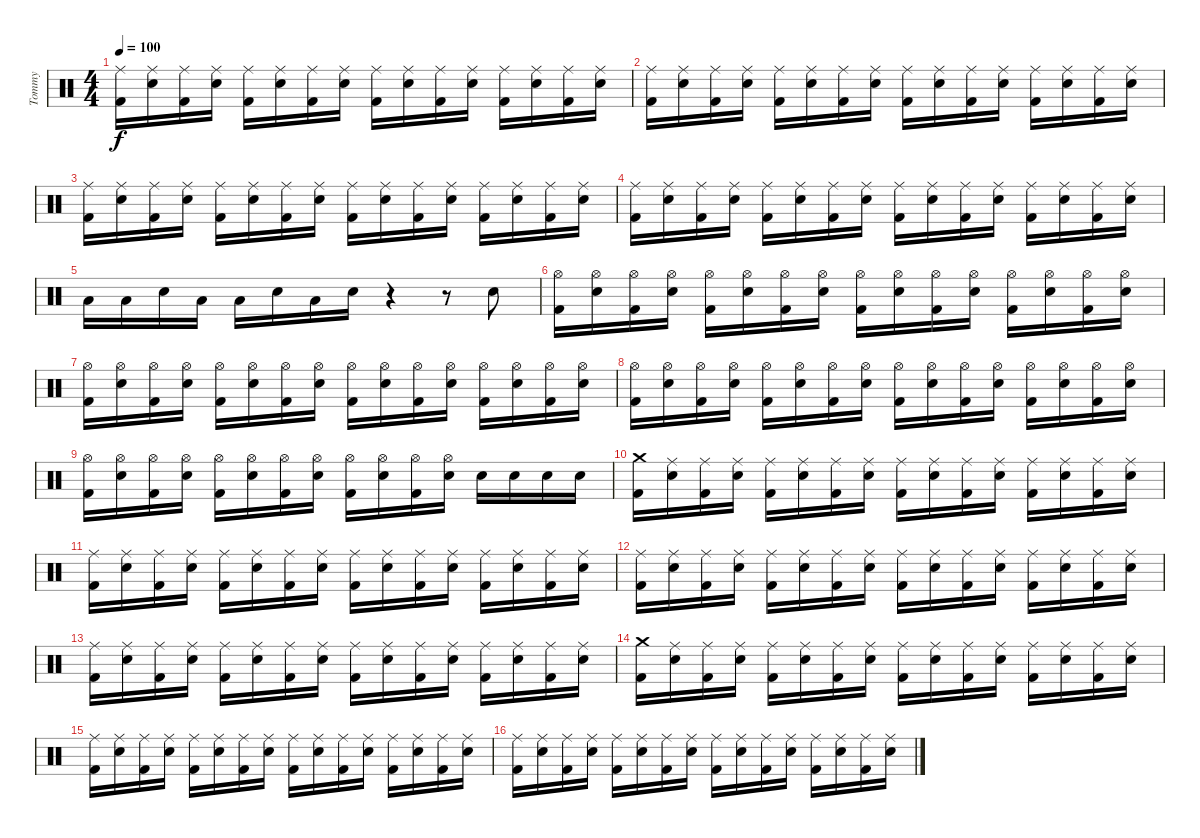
\track ("Tommy" "Tommy") {instrument percussion}
\staff {score}
\articulation defaults
\ts (4 4)
\tempo 100
\clef neutral
\ks c
("Ride (middle)" "Kick (hit) 2").16{dy f} ("Ride (middle)" "Snare (hit) 2").16 ("Ride (middle)" "Kick (hit) 2").16 ("Ride (middle)" "Snare (hit) 2").16 ("Ride (middle)" "Kick (hit) 2").16 ("Ride (middle)" "Snare (hit) 2").16 ("Ride (middle)" "Kick (hit) 2").16 ("Ride (middle)" "Snare (hit) 2").16 ("Ride (middle)" "Kick (hit) 2").16 ("Ride (middle)" "Snare (hit) 2").16 ("Ride (middle)" "Kick (hit) 2").16 ("Ride (middle)" "Snare (hit) 2").16 ("Ride (middle)" "Kick (hit) 2").16 ("Ride (middle)" "Snare (hit) 2").16 ("Ride (middle)" "Kick (hit) 2").16 ("Ride (middle)" "Snare (hit) 2").16 |
("Ride (middle)" "Kick (hit) 2").16 ("Ride (middle)" "Snare (hit) 2").16 ("Ride (middle)" "Kick (hit) 2").16 ("Ride (middle)" "Snare (hit) 2").16 ("Ride (middle)" "Kick (hit) 2").16 ("Ride (middle)" "Snare (hit) 2").16 ("Ride (middle)" "Kick (hit) 2").16 ("Ride (middle)" "Snare (hit) 2").16 ("Ride (middle)" "Kick (hit) 2").16 ("Ride (middle)" "Snare (hit) 2").16 ("Ride (middle)" "Kick (hit) 2").16 ("Ride (middle)" "Snare (hit) 2").16 ("Ride (middle)" "Kick (hit) 2").16 ("Ride (middle)" "Snare (hit) 2").16 ("Ride (middle)" "Kick (hit) 2").16 ("Ride (middle)" "Snare (hit) 2").16 |
("Ride (middle)" "Kick (hit) 2").16 ("Ride (middle)" "Snare (hit) 2").16 ("Ride (middle)" "Kick (hit) 2").16 ("Ride (middle)" "Snare (hit) 2").16 ("Ride (middle)" "Kick (hit) 2").16 ("Ride (middle)" "Snare (hit) 2").16 ("Ride (middle)" "Kick (hit) 2").16 ("Ride (middle)" "Snare (hit) 2").16 ("Ride (middle)" "Kick (hit) 2").16 ("Ride (middle)" "Snare (hit) 2").16 ("Ride (middle)" "Kick (hit) 2").16 ("Ride (middle)" "Snare (hit) 2").16 ("Ride (middle)" "Kick (hit) 2").16 ("Ride (middle)" "Snare (hit) 2").16 ("Ride (middle)" "Kick (hit) 2").16 ("Ride (middle)" "Snare (hit) 2").16 |
("Ride (middle)" "Kick (hit) 2").16 ("Ride (middle)" "Snare (hit) 2").16 ("Ride (middle)" "Kick (hit) 2").16 ("Ride (middle)" "Snare (hit) 2").16 ("Ride (middle)" "Kick (hit) 2").16 ("Ride (middle)" "Snare (hit) 2").16 ("Ride (middle)" "Kick (hit) 2").16 ("Ride (middle)" "Snare (hit) 2").16 ("Ride (middle)" "Kick (hit) 2").16 ("Ride (middle)" "Snare (hit) 2").16 ("Ride (middle)" "Kick (hit) 2").16 ("Ride (middle)" "Snare (hit) 2").16 ("Ride (middle)" "Kick (hit) 2").16 ("Ride (middle)" "Snare (hit) 2").16 ("Ride (middle)" "Kick (hit) 2").16 ("Ride (middle)" "Snare (hit) 2").16 |
"Low Tom (hit)".16 "Low Tom (hit)".16 "Snare (hit) 2".16 "Low Tom (hit)".16 "Low Tom (hit)".16 "Snare (hit) 2".16 "Low Tom (hit)".16 "Snare (hit) 2".16 r.4 r.8 "Snare (hit) 2".8 |
("Hi-Hat (open)" "Kick (hit) 2").16 ("Hi-Hat (open)" "Snare (hit) 2").16 ("Hi-Hat (open)" "Kick (hit) 2").16 ("Hi-Hat (open)" "Snare (hit) 2").16 ("Hi-Hat (open)" "Kick (hit) 2").16 ("Hi-Hat (open)" "Snare (hit) 2").16 ("Hi-Hat (open)" "Kick (hit) 2").16 ("Hi-Hat (open)" "Snare (hit) 2").16 ("Hi-Hat (open)" "Kick (hit) 2").16 ("Hi-Hat (open)" "Snare (hit) 2").16 ("Hi-Hat (open)" "Kick (hit) 2").16 ("Hi-Hat (open)" "Snare (hit) 2").16 ("Hi-Hat (open)" "Kick (hit) 2").16 ("Hi-Hat (open)" "Snare (hit) 2").16 ("Hi-Hat (open)" "Kick (hit) 2").16 ("Hi-Hat (open)" "Snare (hit) 2").16 |
("Hi-Hat (open)" "Kick (hit) 2").16 ("Hi-Hat (open)" "Snare (hit) 2").16 ("Hi-Hat (open)" "Kick (hit) 2").16 ("Hi-Hat (open)" "Snare (hit) 2").16 ("Hi-Hat (open)" "Kick (hit) 2").16 ("Hi-Hat (open)" "Snare (hit) 2").16 ("Hi-Hat (open)" "Kick (hit) 2").16 ("Hi-Hat (open)" "Snare (hit) 2").16 ("Hi-Hat (open)" "Kick (hit) 2").16 ("Hi-Hat (open)" "Snare (hit) 2").16 ("Hi-Hat (open)" "Kick (hit) 2").16 ("Hi-Hat (open)" "Snare (hit) 2").16 ("Hi-Hat (open)" "Kick (hit) 2").16 ("Hi-Hat (open)" "Snare (hit) 2").16 ("Hi-Hat (open)" "Kick (hit) 2").16 ("Hi-Hat (open)" "Snare (hit) 2").16 |
("Hi-Hat (open)" "Kick (hit) 2").16 ("Hi-Hat (open)" "Snare (hit) 2").16 ("Hi-Hat (open)" "Kick (hit) 2").16 ("Hi-Hat (open)" "Snare (hit) 2").16 ("Hi-Hat (open)" "Kick (hit) 2").16 ("Hi-Hat (open)" "Snare (hit) 2").16 ("Hi-Hat (open)" "Kick (hit) 2").16 ("Hi-Hat (open)" "Snare (hit) 2").16 ("Hi-Hat (open)" "Kick (hit) 2").16 ("Hi-Hat (open)" "Snare (hit) 2").16 ("Hi-Hat (open)" "Kick (hit) 2").16 ("Hi-Hat (open)" "Snare (hit) 2").16 ("Hi-Hat (open)" "Kick (hit) 2").16 ("Hi-Hat (open)" "Snare (hit) 2").16 ("Hi-Hat (open)" "Kick (hit) 2").16 ("Hi-Hat (open)" "Snare (hit) 2").16 |
("Hi-Hat (open)" "Kick (hit) 2").16 ("Hi-Hat (open)" "Snare (hit) 2").16 ("Hi-Hat (open)" "Kick (hit) 2").16 ("Hi-Hat (open)" "Snare (hit) 2").16 ("Hi-Hat (open)" "Kick (hit) 2").16 ("Hi-Hat (open)" "Snare (hit) 2").16 ("Hi-Hat (open)" "Kick (hit) 2").16 ("Hi-Hat (open)" "Snare (hit) 2").16 ("Hi-Hat (open)" "Kick (hit) 2").16 ("Hi-Hat (open)" "Snare (hit) 2").16 ("Hi-Hat (open)" "Kick (hit) 2").16 ("Hi-Hat (open)" "Snare (hit) 2").16 "Snare (hit) 2".16 "Snare (hit) 2".16 "Snare (hit) 2".16 "Snare (hit) 2".16 |
("Crash medium (hit)" "Kick (hit) 2").16 ("Ride (middle)" "Snare (hit) 2").16 ("Ride (middle)" "Kick (hit) 2").16 ("Ride (middle)" "Snare (hit) 2").16 ("Ride (middle)" "Kick (hit) 2").16 ("Ride (middle)" "Snare (hit) 2").16 ("Ride (middle)" "Kick (hit) 2").16 ("Ride (middle)" "Snare (hit) 2").16 ("Ride (middle)" "Kick (hit) 2").16 ("Ride (middle)" "Snare (hit) 2").16 ("Ride (middle)" "Kick (hit) 2").16 ("Ride (middle)" "Snare (hit) 2").16 ("Ride (middle)" "Kick (hit) 2").16 ("Ride (middle)" "Snare (hit) 2").16 ("Ride (middle)" "Kick (hit) 2").16 ("Ride (middle)" "Snare (hit) 2").16 |
("Ride (middle)" "Kick (hit) 2").16 ("Ride (middle)" "Snare (hit) 2").16 ("Ride (middle)" "Kick (hit) 2").16 ("Ride (middle)" "Snare (hit) 2").16 ("Ride (middle)" "Kick (hit) 2").16 ("Ride (middle)" "Snare (hit) 2").16 ("Ride (middle)" "Kick (hit) 2").16 ("Ride (middle)" "Snare (hit) 2").16 ("Ride (middle)" "Kick (hit) 2").16 ("Ride (middle)" "Snare (hit) 2").16 ("Ride (middle)" "Kick (hit) 2").16 ("Ride (middle)" "Snare (hit) 2").16 ("Ride (middle)" "Kick (hit) 2").16 ("Ride (middle)" "Snare (hit) 2").16 ("Ride (middle)" "Kick (hit) 2").16 ("Ride (middle)" "Snare (hit) 2").16 |
("Ride (middle)" "Kick (hit) 2").16 ("Ride (middle)" "Snare (hit) 2").16 ("Ride (middle)" "Kick (hit) 2").16 ("Ride (middle)" "Snare (hit) 2").16 ("Ride (middle)" "Kick (hit) 2").16 ("Ride (middle)" "Snare (hit) 2").16 ("Ride (middle)" "Kick (hit) 2").16 ("Ride (middle)" "Snare (hit) 2").16 ("Ride (middle)" "Kick (hit) 2").16 ("Ride (middle)" "Snare (hit) 2").16 ("Ride (middle)" "Kick (hit) 2").16 ("Ride (middle)" "Snare (hit) 2").16 ("Ride (middle)" "Kick (hit) 2").16 ("Ride (middle)" "Snare (hit) 2").16 ("Ride (middle)" "Kick (hit) 2").16 ("Ride (middle)" "Snare (hit) 2").16 |
("Ride (middle)" "Kick (hit) 2").16 ("Ride (middle)" "Snare (hit) 2").16 ("Ride (middle)" "Kick (hit) 2").16 ("Ride (middle)" "Snare (hit) 2").16 ("Ride (middle)" "Kick (hit) 2").16 ("Ride (middle)" "Snare (hit) 2").16 ("Ride (middle)" "Kick (hit) 2").16 ("Ride (middle)" "Snare (hit) 2").16 ("Ride (middle)" "Kick (hit) 2").16 ("Ride (middle)" "Snare (hit) 2").16 ("Ride (middle)" "Kick (hit) 2").16 ("Ride (middle)" "Snare (hit) 2").16 ("Ride (middle)" "Kick (hit) 2").16 ("Ride (middle)" "Snare (hit) 2").16 ("Ride (middle)" "Kick (hit) 2").16 ("Ride (middle)" "Snare (hit) 2").16 |
("Crash medium (hit)" "Kick (hit) 2").16 ("Ride (middle)" "Snare (hit) 2").16 ("Ride (middle)" "Kick (hit) 2").16 ("Ride (middle)" "Snare (hit) 2").16 ("Ride (middle)" "Kick (hit) 2").16 ("Ride (middle)" "Snare (hit) 2").16 ("Ride (middle)" "Kick (hit) 2").16 ("Ride (middle)" "Snare (hit) 2").16 ("Ride (middle)" "Kick (hit) 2").16 ("Ride (middle)" "Snare (hit) 2").16 ("Ride (middle)" "Kick (hit) 2").16 ("Ride (middle)" "Snare (hit) 2").16 ("Ride (middle)" "Kick (hit) 2").16 ("Ride (middle)" "Snare (hit) 2").16 ("Ride (middle)" "Kick (hit) 2").16 ("Ride (middle)" "Snare (hit) 2").16 |
("Ride (middle)" "Kick (hit) 2").16 ("Ride (middle)" "Snare (hit) 2").16 ("Ride (middle)" "Kick (hit) 2").16 ("Ride (middle)" "Snare (hit) 2").16 ("Ride (middle)" "Kick (hit) 2").16 ("Ride (middle)" "Snare (hit) 2").16 ("Ride (middle)" "Kick (hit) 2").16 ("Ride (middle)" "Snare (hit) 2").16 ("Ride (middle)" "Kick (hit) 2").16 ("Ride (middle)" "Snare (hit) 2").16 ("Ride (middle)" "Kick (hit) 2").16 ("Ride (middle)" "Snare (hit) 2").16 ("Ride (middle)" "Kick (hit) 2").16 ("Ride (middle)" "Snare (hit) 2").16 ("Ride (middle)" "Kick (hit) 2").16 ("Ride (middle)" "Snare (hit) 2").16 |
("Ride (middle)" "Kick (hit) 2").16 ("Ride (middle)" "Snare (hit) 2").16 ("Ride (middle)" "Kick (hit) 2").16 ("Ride (middle)" "Snare (hit) 2").16 ("Ride (middle)" "Kick (hit) 2").16 ("Ride (middle)" "Snare (hit) 2").16 ("Ride (middle)" "Kick (hit) 2").16 ("Ride (middle)" "Snare (hit) 2").16 ("Ride (middle)" "Kick (hit) 2").16 ("Ride (middle)" "Snare (hit) 2").16 ("Ride (middle)" "Kick (hit) 2").16 ("Ride (middle)" "Snare (hit) 2").16 ("Ride (middle)" "Kick (hit) 2").16 ("Ride (middle)" "Snare (hit) 2").16 ("Ride (middle)" "Kick (hit) 2").16 ("Ride (middle)" "Snare (hit) 2").16
